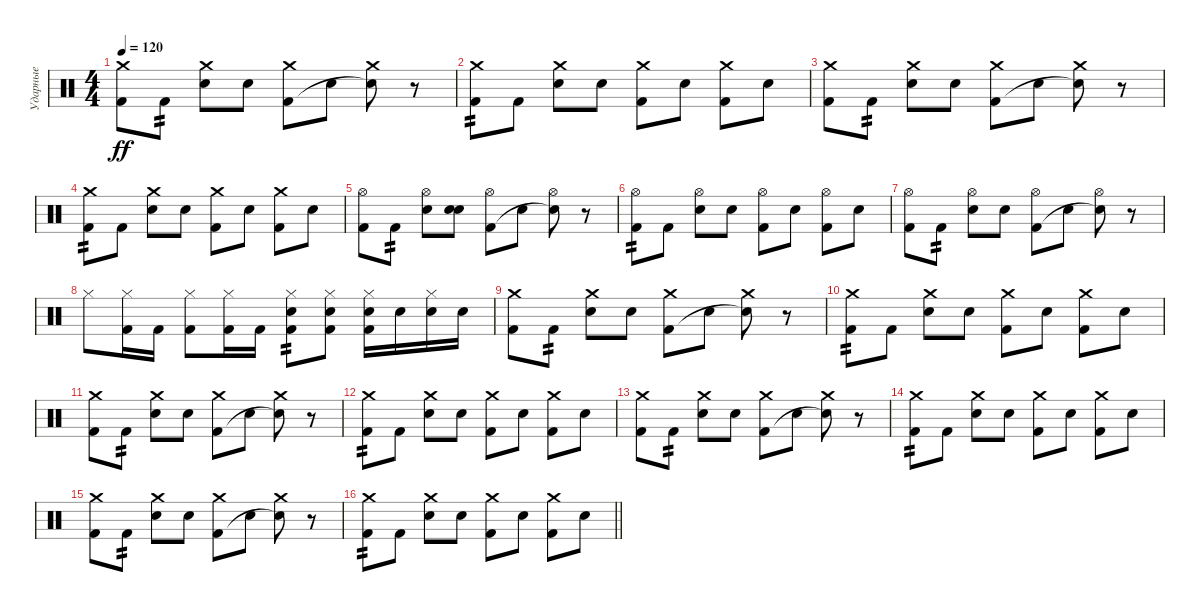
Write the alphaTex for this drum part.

\track ("Ударные" "Ударные") {instrument percussion}
\staff {score}
\articulation defaults
\ts (4 4)
\tempo 120
\clef neutral
\ks c
("Crash medium (hit)" "Kick (hit) 2").8{dy ff} "Kick (hit) 2".8{tp 2} ("Crash medium (hit)" "Electric Snare (hit)").8 "Electric Snare (hit)".8 ("Crash medium (hit)" "Kick (hit) 2").8 "Electric Snare (hit)".8 ("Crash medium (hit)" "Electric Snare (hit)"{t}).8 r.8 |
("Crash medium (hit)" "Kick (hit) 2").8{tp 2} "Kick (hit) 2".8 ("Crash medium (hit)" "Electric Snare (hit)").8 "Electric Snare (hit)".8 ("Crash medium (hit)" "Kick (hit) 2").8 "Electric Snare (hit)".8 ("Crash medium (hit)" "Kick (hit) 2").8 "Electric Snare (hit)".8 |
("Crash medium (hit)" "Kick (hit) 2").8 "Kick (hit) 2".8{tp 2} ("Crash medium (hit)" "Electric Snare (hit)").8 "Electric Snare (hit)".8 ("Crash medium (hit)" "Kick (hit) 2").8 "Electric Snare (hit)".8 ("Crash medium (hit)" "Electric Snare (hit)"{t}).8 r.8 |
("Crash medium (hit)" "Kick (hit) 2").8{tp 2} "Kick (hit) 2".8 ("Crash medium (hit)" "Electric Snare (hit)").8 "Electric Snare (hit)".8 ("Crash medium (hit)" "Kick (hit) 2").8 "Electric Snare (hit)".8 ("Crash medium (hit)" "Kick (hit) 2").8 "Electric Snare (hit)".8 |
("Hi-Hat (open)" "Kick (hit) 2").8 "Kick (hit) 2".8{tp 2} ("Hi-Hat (open)" "Electric Snare (hit)").8 ("Snare (hit)" "Electric Snare (hit)").8 ("Hi-Hat (open)" "Kick (hit) 2").8 "Electric Snare (hit)".8 ("Hi-Hat (open)" "Electric Snare (hit)"{t}).8 r.8 |
("Hi-Hat (open)" "Kick (hit) 2").8{tp 2} "Kick (hit) 2".8 ("Hi-Hat (open)" "Electric Snare (hit)").8 "Electric Snare (hit)".8 ("Hi-Hat (open)" "Kick (hit) 2").8 "Electric Snare (hit)".8 ("Hi-Hat (open)" "Kick (hit) 2").8 "Electric Snare (hit)".8 |
("Hi-Hat (open)" "Kick (hit) 2").8 "Kick (hit) 2".8{tp 2} ("Hi-Hat (open)" "Electric Snare (hit)").8 "Electric Snare (hit)".8 ("Hi-Hat (open)" "Kick (hit) 2").8 "Electric Snare (hit)".8 ("Hi-Hat (open)" "Electric Snare (hit)"{t}).8 r.8 |
"Hi-Hat (closed)".8 ("Hi-Hat (closed)" "Kick (hit) 2").16 "Kick (hit) 2".16 ("Hi-Hat (closed)" "Kick (hit) 2").8 ("Hi-Hat (closed)" "Kick (hit) 2").16 "Kick (hit) 2".16 ("Hi-Hat (closed)" "Electric Snare (hit)" "Kick (hit) 2").8{tp 2} ("Hi-Hat (closed)" "Electric Snare (hit)" "Kick (hit) 2").8 ("Hi-Hat (closed)" "Electric Snare (hit)" "Kick (hit) 2").16 "Electric Snare (hit)".16 ("Hi-Hat (closed)" "Electric Snare (hit)").16 "Electric Snare (hit)".16 |
("Crash medium (hit)" "Kick (hit) 2").8 "Kick (hit) 2".8{tp 2} ("Crash medium (hit)" "Electric Snare (hit)").8 "Electric Snare (hit)".8 ("Crash medium (hit)" "Kick (hit) 2").8 "Electric Snare (hit)".8 ("Crash medium (hit)" "Electric Snare (hit)"{t}).8 r.8 |
("Crash medium (hit)" "Kick (hit) 2").8{tp 2} "Kick (hit) 2".8 ("Crash medium (hit)" "Electric Snare (hit)").8 "Electric Snare (hit)".8 ("Crash medium (hit)" "Kick (hit) 2").8 "Electric Snare (hit)".8 ("Crash medium (hit)" "Kick (hit) 2").8 "Electric Snare (hit)".8 |
("Crash medium (hit)" "Kick (hit) 2").8 "Kick (hit) 2".8{tp 2} ("Crash medium (hit)" "Electric Snare (hit)").8 "Electric Snare (hit)".8 ("Crash medium (hit)" "Kick (hit) 2").8 "Electric Snare (hit)".8 ("Crash medium (hit)" "Electric Snare (hit)"{t}).8 r.8 |
("Crash medium (hit)" "Kick (hit) 2").8{tp 2} "Kick (hit) 2".8 ("Crash medium (hit)" "Electric Snare (hit)").8 "Electric Snare (hit)".8 ("Crash medium (hit)" "Kick (hit) 2").8 "Electric Snare (hit)".8 ("Crash medium (hit)" "Kick (hit) 2").8 "Electric Snare (hit)".8 |
("Crash medium (hit)" "Kick (hit) 2").8 "Kick (hit) 2".8{tp 2} ("Crash medium (hit)" "Electric Snare (hit)").8 "Electric Snare (hit)".8 ("Crash medium (hit)" "Kick (hit) 2").8 "Electric Snare (hit)".8 ("Crash medium (hit)" "Electric Snare (hit)"{t}).8 r.8 |
("Crash medium (hit)" "Kick (hit) 2").8{tp 2} "Kick (hit) 2".8 ("Crash medium (hit)" "Electric Snare (hit)").8 "Electric Snare (hit)".8 ("Crash medium (hit)" "Kick (hit) 2").8 "Electric Snare (hit)".8 ("Crash medium (hit)" "Kick (hit) 2").8 "Electric Snare (hit)".8 |
("Crash medium (hit)" "Kick (hit) 2").8 "Kick (hit) 2".8{tp 2} ("Crash medium (hit)" "Electric Snare (hit)").8 "Electric Snare (hit)".8 ("Crash medium (hit)" "Kick (hit) 2").8 "Electric Snare (hit)".8 ("Crash medium (hit)" "Electric Snare (hit)"{t}).8 r.8 |
\barLineRight lightlight
("Crash medium (hit)" "Kick (hit) 2").8{tp 2} "Kick (hit) 2".8 ("Crash medium (hit)" "Electric Snare (hit)").8 "Electric Snare (hit)".8 ("Crash medium (hit)" "Kick (hit) 2").8 "Electric Snare (hit)".8 ("Crash medium (hit)" "Kick (hit) 2").8 "Electric Snare (hit)".8
